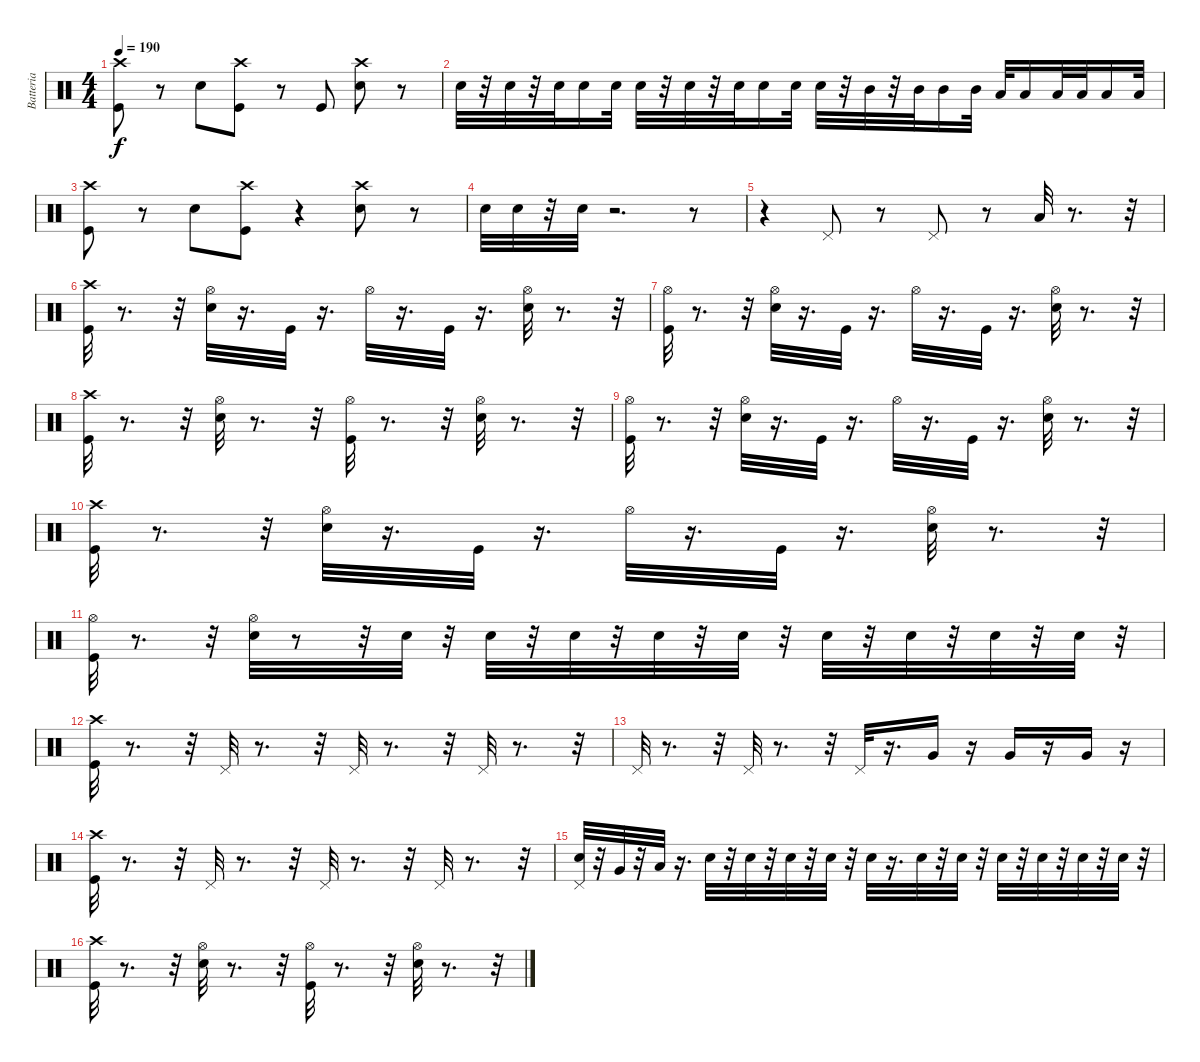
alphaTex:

\track ("Batteria" "Batteria") {instrument percussion}
\staff {score}
\articulation defaults
\ts (4 4)
\tempo 190
\clef neutral
\ks c
("Crash high (hit)" "Kick (hit)").8{dy f} r.8 "Snare (hit) 2".8 ("Crash high (hit)" "Kick (hit)").8 r.8 "Kick (hit)".8 ("Snare (hit) 2" "Crash high (hit)").8 r.8 |
"Snare (hit) 2".32 r.32 "Snare (hit) 2".32 r.32 "Snare (hit) 2".32 "Snare (hit) 2".16 "Snare (hit) 2".32 "Snare (hit) 2".32 r.32 "Snare (hit) 2".32 r.32 "Snare (hit) 2".32 "Snare (hit) 2".16 "Snare (hit) 2".32 "Snare (hit) 2".32 r.32 "Mid Tom (hit)".32 r.32 "Mid Tom (hit)".32 "Mid Tom (hit)".16 "Mid Tom (hit)".32 "Low Tom (hit)".32 "Low Tom (hit)".16 "Low Tom (hit)".32 "Low Tom (hit)".32 "Low Tom (hit)".16 "Low Tom (hit)".32 |
("Crash high (hit)" "Kick (hit)").8 r.8 "Snare (hit) 2".8 ("Kick (hit)" "Crash high (hit)").8 r.4 ("Snare (hit) 2" "Crash high (hit)").8 r.8 |
"Snare (hit) 2".32 "Snare (hit) 2".32 r.32 "Snare (hit) 2".32 r.2{d} r.8 |
r.4 "Pedal Hi-Hat (hit)".8 r.8 "Pedal Hi-Hat (hit)".8 r.8 "Low Tom (hit)".32 r.8{d} r.32 |
("Crash high (hit)" "Kick (hit)").32 r.8{d} r.32 ("Snare (hit) 2" "Hi-Hat (open)").32 r.16{d} "Kick (hit)".32 r.16{d} "Hi-Hat (open)".32 r.16{d} "Kick (hit)".32 r.16{d} ("Snare (hit) 2" "Hi-Hat (open)").32 r.8{d} r.32 |
("Kick (hit)" "Hi-Hat (open)").32 r.8{d} r.32 ("Hi-Hat (open)" "Snare (hit) 2").32 r.16{d} "Kick (hit)".32 r.16{d} "Hi-Hat (open)".32 r.16{d} "Kick (hit)".32 r.16{d} ("Hi-Hat (open)" "Snare (hit) 2").32 r.8{d} r.32 |
("Kick (hit)" "Crash high (hit)").32 r.8{d} r.32 ("Snare (hit) 2" "Hi-Hat (open)").32 r.8{d} r.32 ("Hi-Hat (open)" "Kick (hit)").32 r.8{d} r.32 ("Snare (hit) 2" "Hi-Hat (open)").32 r.8{d} r.32 |
("Hi-Hat (open)" "Kick (hit)").32 r.8{d} r.32 ("Hi-Hat (open)" "Snare (hit) 2").32 r.16{d} "Kick (hit)".32 r.16{d} "Hi-Hat (open)".32 r.16{d} "Kick (hit)".32 r.16{d} ("Snare (hit) 2" "Hi-Hat (open)").32 r.8{d} r.32 |
("Kick (hit)" "Crash high (hit)").32 r.8{d} r.32 ("Snare (hit) 2" "Hi-Hat (open)").32 r.16{d} "Kick (hit)".32 r.16{d} "Hi-Hat (open)".32 r.16{d} "Kick (hit)".32 r.16{d} ("Snare (hit) 2" "Hi-Hat (open)").32 r.8{d} r.32 |
("Kick (hit)" "Hi-Hat (open)").32 r.8{d} r.32 ("Snare (hit) 2" "Hi-Hat (open)").32 r.8 r.32 "Snare (hit) 2".32 r.32 "Snare (hit) 2".32 r.32 "Snare (hit) 2".32 r.32 "Snare (hit) 2".32 r.32 "Snare (hit) 2".32 r.32 "Snare (hit) 2".32 r.32 "Snare (hit) 2".32 r.32 "Snare (hit) 2".32 r.32 "Snare (hit) 2".32 r.32 |
("Kick (hit)" "Crash high (hit)").32 r.8{d} r.32 "Pedal Hi-Hat (hit)".32 r.8{d} r.32 "Pedal Hi-Hat (hit)".32 r.8{d} r.32 "Pedal Hi-Hat (hit)".32 r.8{d} r.32 |
"Pedal Hi-Hat (hit)".32 r.8{d} r.32 "Pedal Hi-Hat (hit)".32 r.8{d} r.32 "Pedal Hi-Hat (hit)".32 r.16{d} "Very Low Tom (hit)".16 r.16 "Very Low Tom (hit)".16 r.16 "Very Low Tom (hit)".16 r.16 |
("Kick (hit)" "Crash high (hit)").32 r.8{d} r.32 "Pedal Hi-Hat (hit)".32 r.8{d} r.32 "Pedal Hi-Hat (hit)".32 r.8{d} r.32 "Pedal Hi-Hat (hit)".32 r.8{d} r.32 |
("Snare (hit) 2" "Pedal Hi-Hat (hit)").32 r.32 "Very Low Tom (hit)".32 r.32 "Low Floor Tom (hit)".32 r.16{d} "Snare (hit) 2".32 r.32 "Snare (hit) 2".32 r.32 "Snare (hit) 2".32 r.32 "Snare (hit) 2".32 r.32 "Snare (hit) 2".32 r.16{d} "Snare (hit) 2".32 r.32 "Snare (hit) 2".32 r.32 "Snare (hit) 2".32 r.32 "Snare (hit) 2".32 r.32 "Snare (hit) 2".32 r.32 "Snare (hit) 2".32 r.32 |
("Kick (hit)" "Crash high (hit)").32 r.8{d} r.32 ("Hi-Hat (open)" "Snare (hit) 2").32 r.8{d} r.32 ("Hi-Hat (open)" "Kick (hit)").32 r.8{d} r.32 ("Snare (hit) 2" "Hi-Hat (open)").32 r.8{d} r.32
